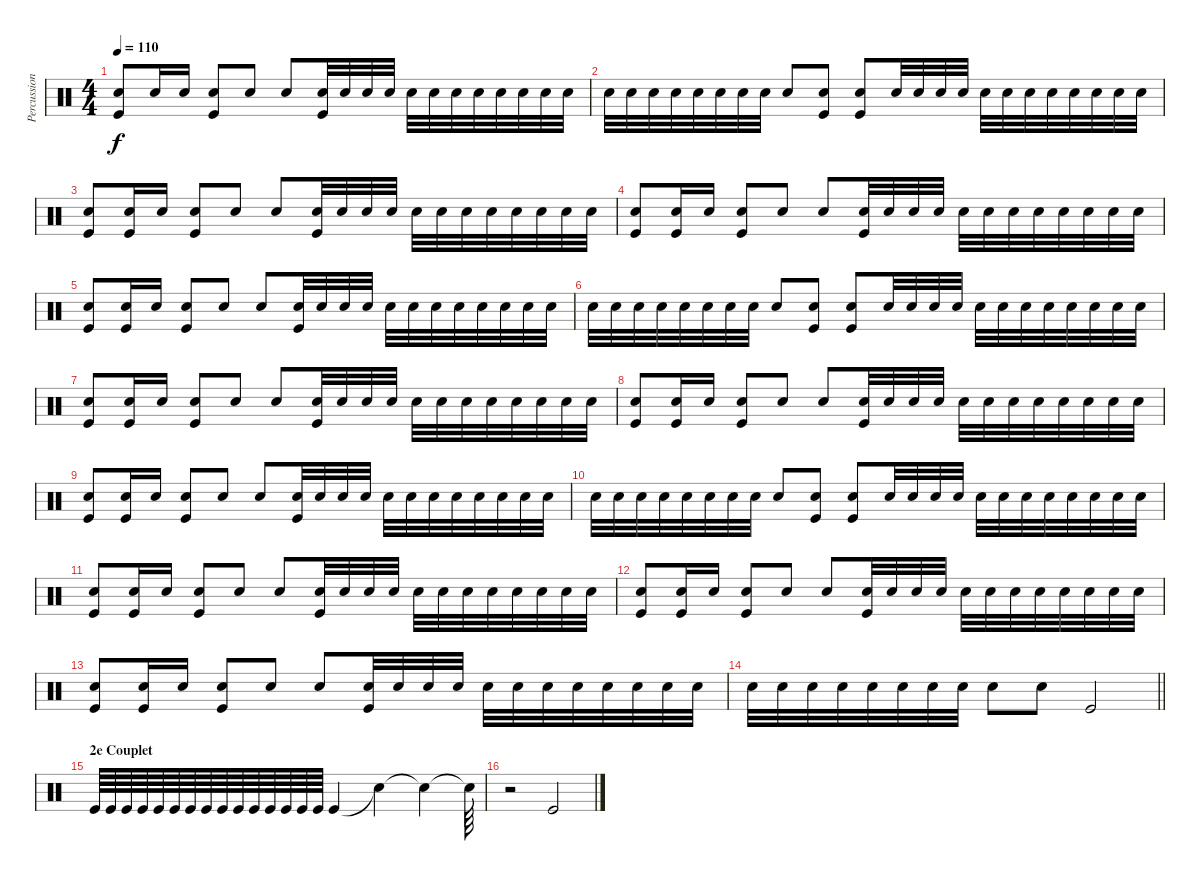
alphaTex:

\track ("Percussions" "Percussion") {instrument percussion}
\staff {score}
\articulation defaults
\ts (4 4)
\tempo 110
\clef neutral
\ks c
("Snare (hit) 2" "Kick (hit)").8{dy f} "Snare (hit) 2".16 "Snare (hit) 2".16 ("Snare (hit) 2" "Kick (hit)").8 "Snare (hit) 2".8 "Snare (hit) 2".8 ("Snare (hit) 2" "Kick (hit)").32 "Snare (hit) 2".32 "Snare (hit) 2".32 "Snare (hit) 2".32 "Snare (hit) 2".32 "Snare (hit) 2".32 "Snare (hit) 2".32 "Snare (hit) 2".32 "Snare (hit) 2".32 "Snare (hit) 2".32 "Snare (hit) 2".32 "Snare (hit) 2".32 |
"Snare (hit) 2".32 "Snare (hit) 2".32 "Snare (hit) 2".32 "Snare (hit) 2".32 "Snare (hit) 2".32 "Snare (hit) 2".32 "Snare (hit) 2".32 "Snare (hit) 2".32 "Snare (hit) 2".8 ("Snare (hit) 2" "Kick (hit)").8 ("Snare (hit) 2" "Kick (hit)").8 "Snare (hit) 2".32 "Snare (hit) 2".32 "Snare (hit) 2".32 "Snare (hit) 2".32 "Snare (hit) 2".32 "Snare (hit) 2".32 "Snare (hit) 2".32 "Snare (hit) 2".32 "Snare (hit) 2".32 "Snare (hit) 2".32 "Snare (hit) 2".32 "Snare (hit) 2".32 |
("Snare (hit) 2" "Kick (hit)").8 ("Snare (hit) 2" "Kick (hit)").16 "Snare (hit) 2".16 ("Snare (hit) 2" "Kick (hit)").8 "Snare (hit) 2".8 "Snare (hit) 2".8 ("Snare (hit) 2" "Kick (hit)").32 "Snare (hit) 2".32 "Snare (hit) 2".32 "Snare (hit) 2".32 "Snare (hit) 2".32 "Snare (hit) 2".32 "Snare (hit) 2".32 "Snare (hit) 2".32 "Snare (hit) 2".32 "Snare (hit) 2".32 "Snare (hit) 2".32 "Snare (hit) 2".32 |
("Snare (hit) 2" "Kick (hit)").8 ("Snare (hit) 2" "Kick (hit)").16 "Snare (hit) 2".16 ("Snare (hit) 2" "Kick (hit)").8 "Snare (hit) 2".8 "Snare (hit) 2".8 ("Snare (hit) 2" "Kick (hit)").32 "Snare (hit) 2".32 "Snare (hit) 2".32 "Snare (hit) 2".32 "Snare (hit) 2".32 "Snare (hit) 2".32 "Snare (hit) 2".32 "Snare (hit) 2".32 "Snare (hit) 2".32 "Snare (hit) 2".32 "Snare (hit) 2".32 "Snare (hit) 2".32 |
("Snare (hit) 2" "Kick (hit)").8 ("Snare (hit) 2" "Kick (hit)").16 "Snare (hit) 2".16 ("Snare (hit) 2" "Kick (hit)").8 "Snare (hit) 2".8 "Snare (hit) 2".8 ("Snare (hit) 2" "Kick (hit)").32 "Snare (hit) 2".32 "Snare (hit) 2".32 "Snare (hit) 2".32 "Snare (hit) 2".32 "Snare (hit) 2".32 "Snare (hit) 2".32 "Snare (hit) 2".32 "Snare (hit) 2".32 "Snare (hit) 2".32 "Snare (hit) 2".32 "Snare (hit) 2".32 |
"Snare (hit) 2".32 "Snare (hit) 2".32 "Snare (hit) 2".32 "Snare (hit) 2".32 "Snare (hit) 2".32 "Snare (hit) 2".32 "Snare (hit) 2".32 "Snare (hit) 2".32 "Snare (hit) 2".8 ("Snare (hit) 2" "Kick (hit)").8 ("Snare (hit) 2" "Kick (hit)").8 "Snare (hit) 2".32 "Snare (hit) 2".32 "Snare (hit) 2".32 "Snare (hit) 2".32 "Snare (hit) 2".32 "Snare (hit) 2".32 "Snare (hit) 2".32 "Snare (hit) 2".32 "Snare (hit) 2".32 "Snare (hit) 2".32 "Snare (hit) 2".32 "Snare (hit) 2".32 |
("Snare (hit) 2" "Kick (hit)").8 ("Snare (hit) 2" "Kick (hit)").16 "Snare (hit) 2".16 ("Snare (hit) 2" "Kick (hit)").8 "Snare (hit) 2".8 "Snare (hit) 2".8 ("Snare (hit) 2" "Kick (hit)").32 "Snare (hit) 2".32 "Snare (hit) 2".32 "Snare (hit) 2".32 "Snare (hit) 2".32 "Snare (hit) 2".32 "Snare (hit) 2".32 "Snare (hit) 2".32 "Snare (hit) 2".32 "Snare (hit) 2".32 "Snare (hit) 2".32 "Snare (hit) 2".32 |
("Snare (hit) 2" "Kick (hit)").8 ("Snare (hit) 2" "Kick (hit)").16 "Snare (hit) 2".16 ("Snare (hit) 2" "Kick (hit)").8 "Snare (hit) 2".8 "Snare (hit) 2".8 ("Snare (hit) 2" "Kick (hit)").32 "Snare (hit) 2".32 "Snare (hit) 2".32 "Snare (hit) 2".32 "Snare (hit) 2".32 "Snare (hit) 2".32 "Snare (hit) 2".32 "Snare (hit) 2".32 "Snare (hit) 2".32 "Snare (hit) 2".32 "Snare (hit) 2".32 "Snare (hit) 2".32 |
("Snare (hit) 2" "Kick (hit)").8 ("Snare (hit) 2" "Kick (hit)").16 "Snare (hit) 2".16 ("Snare (hit) 2" "Kick (hit)").8 "Snare (hit) 2".8 "Snare (hit) 2".8 ("Snare (hit) 2" "Kick (hit)").32 "Snare (hit) 2".32 "Snare (hit) 2".32 "Snare (hit) 2".32 "Snare (hit) 2".32 "Snare (hit) 2".32 "Snare (hit) 2".32 "Snare (hit) 2".32 "Snare (hit) 2".32 "Snare (hit) 2".32 "Snare (hit) 2".32 "Snare (hit) 2".32 |
"Snare (hit) 2".32 "Snare (hit) 2".32 "Snare (hit) 2".32 "Snare (hit) 2".32 "Snare (hit) 2".32 "Snare (hit) 2".32 "Snare (hit) 2".32 "Snare (hit) 2".32 "Snare (hit) 2".8 ("Snare (hit) 2" "Kick (hit)").8 ("Snare (hit) 2" "Kick (hit)").8 "Snare (hit) 2".32 "Snare (hit) 2".32 "Snare (hit) 2".32 "Snare (hit) 2".32 "Snare (hit) 2".32 "Snare (hit) 2".32 "Snare (hit) 2".32 "Snare (hit) 2".32 "Snare (hit) 2".32 "Snare (hit) 2".32 "Snare (hit) 2".32 "Snare (hit) 2".32 |
("Snare (hit) 2" "Kick (hit)").8 ("Snare (hit) 2" "Kick (hit)").16 "Snare (hit) 2".16 ("Snare (hit) 2" "Kick (hit)").8 "Snare (hit) 2".8 "Snare (hit) 2".8 ("Snare (hit) 2" "Kick (hit)").32 "Snare (hit) 2".32 "Snare (hit) 2".32 "Snare (hit) 2".32 "Snare (hit) 2".32 "Snare (hit) 2".32 "Snare (hit) 2".32 "Snare (hit) 2".32 "Snare (hit) 2".32 "Snare (hit) 2".32 "Snare (hit) 2".32 "Snare (hit) 2".32 |
("Snare (hit) 2" "Kick (hit)").8 ("Snare (hit) 2" "Kick (hit)").16 "Snare (hit) 2".16 ("Snare (hit) 2" "Kick (hit)").8 "Snare (hit) 2".8 "Snare (hit) 2".8 ("Snare (hit) 2" "Kick (hit)").32 "Snare (hit) 2".32 "Snare (hit) 2".32 "Snare (hit) 2".32 "Snare (hit) 2".32 "Snare (hit) 2".32 "Snare (hit) 2".32 "Snare (hit) 2".32 "Snare (hit) 2".32 "Snare (hit) 2".32 "Snare (hit) 2".32 "Snare (hit) 2".32 |
("Snare (hit) 2" "Kick (hit)").8 ("Snare (hit) 2" "Kick (hit)").16 "Snare (hit) 2".16 ("Snare (hit) 2" "Kick (hit)").8 "Snare (hit) 2".8 "Snare (hit) 2".8 ("Snare (hit) 2" "Kick (hit)").32 "Snare (hit) 2".32 "Snare (hit) 2".32 "Snare (hit) 2".32 "Snare (hit) 2".32 "Snare (hit) 2".32 "Snare (hit) 2".32 "Snare (hit) 2".32 "Snare (hit) 2".32 "Snare (hit) 2".32 "Snare (hit) 2".32 "Snare (hit) 2".32 |
\barLineRight lightlight "Snare (hit) 2".32 "Snare (hit) 2".32 "Snare (hit) 2".32 "Snare (hit) 2".32 "Snare (hit) 2".32 "Snare (hit) 2".32 "Snare (hit) 2".32 "Snare (hit) 2".32 "Snare (hit) 2".8 "Snare (hit) 2".8 "Kick (hit)".2
|
\section ("" "2e Couplet")
"Kick (hit)".64{volume 0} "Kick (hit)".64 "Kick (hit)".64 "Kick (hit)".64 "Kick (hit)".64{volume 2} "Kick (hit)".64 "Kick (hit)".64 "Kick (hit)".64 "Kick (hit)".64 "Kick (hit)".64{volume 5} "Kick (hit)".64 "Kick (hit)".64 "Kick (hit)".64 "Kick (hit)".64{volume 10} "Kick (hit)".64 "Kick (hit)".4{volume 13} "Snare (hit)"{t}.4 "Snare (hit)"{t}.4 "Snare (hit)"{t}.64 |
r.2 "Kick (hit)".2
